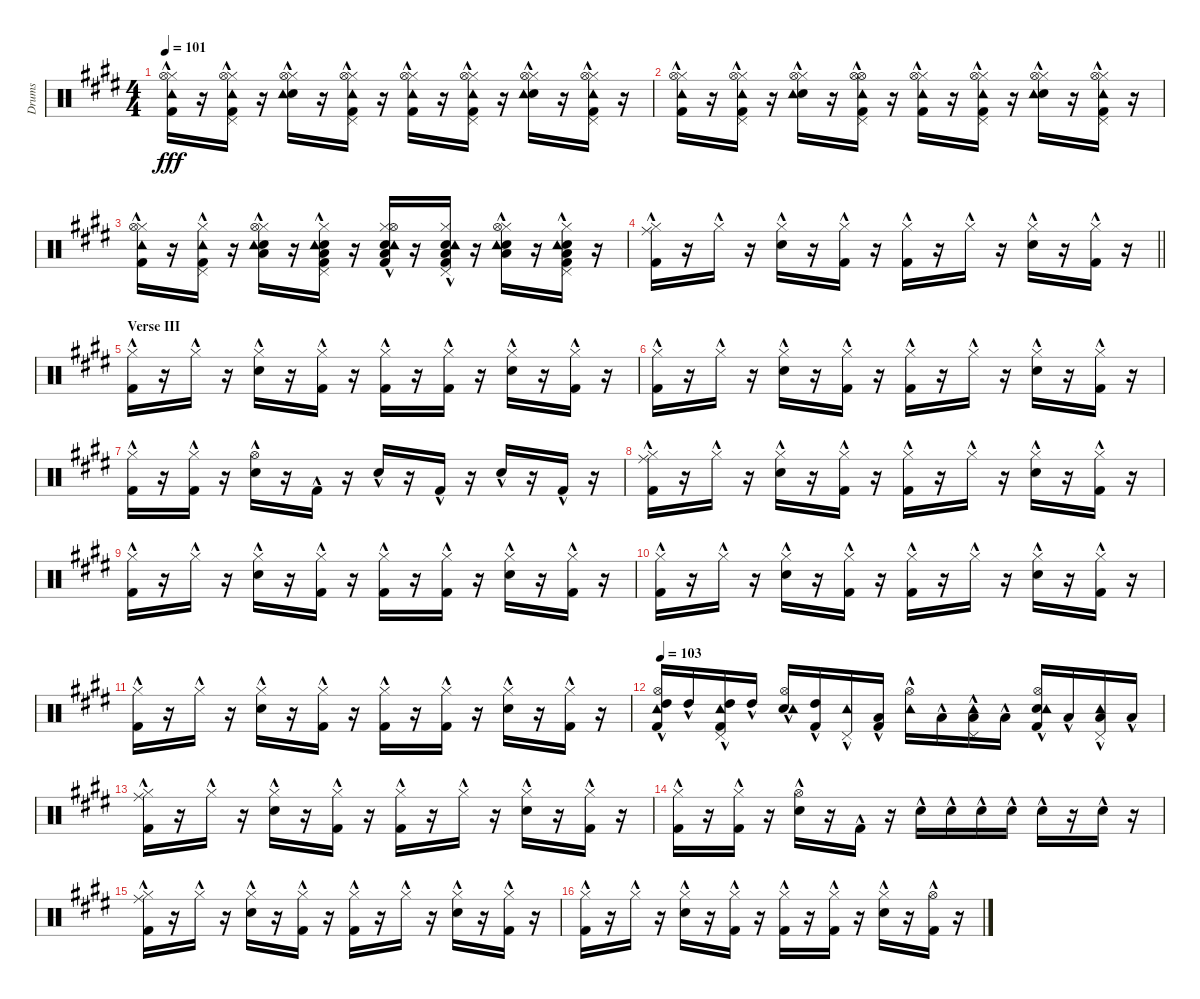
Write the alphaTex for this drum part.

\track ("Drums" "Drums") {instrument percussion}
\staff {score}
\articulation defaults
\ts (4 4)
\tempo 101
\clef neutral
\ks e
("Kick (hit) 2"{hac} "Hi-Hat (closed)"{hac} "Tambourine (hit)"{hac} "Hi-Hat (open)"{hac}).16{dy fff} r.16 ("Kick (hit) 2"{hac} "Hi-Hat (closed)"{hac} "Tambourine (hit)"{hac} "Hi-Hat (open)"{hac} "Pedal Hi-Hat (hit)"{hac}).16 r.16 ("Snare (hit) 2"{hac} "Hi-Hat (closed)"{hac} "Tambourine (hit)"{hac} "Hi-Hat (open)"{hac}).16 r.16 ("Kick (hit) 2"{hac} "Hi-Hat (closed)"{hac} "Tambourine (hit)"{hac} "Hi-Hat (open)"{hac} "Pedal Hi-Hat (hit)"{hac}).16 r.16 ("Kick (hit) 2"{hac} "Hi-Hat (closed)"{hac} "Tambourine (hit)"{hac} "Hi-Hat (open)"{hac}).16 r.16 ("Kick (hit) 2"{hac} "Hi-Hat (closed)"{hac} "Tambourine (hit)"{hac} "Hi-Hat (open)"{hac} "Pedal Hi-Hat (hit)"{hac}).16 r.16 ("Snare (hit) 2"{hac} "Hi-Hat (closed)"{hac} "Tambourine (hit)"{hac} "Hi-Hat (open)"{hac}).16 r.16 ("Kick (hit) 2"{hac} "Hi-Hat (closed)"{hac} "Tambourine (hit)"{hac} "Hi-Hat (open)"{hac} "Pedal Hi-Hat (hit)"{hac}).16 r.16 |
("Kick (hit) 2"{hac} "Hi-Hat (closed)"{hac} "Tambourine (hit)"{hac} "Hi-Hat (open)"{hac}).16 r.16 ("Kick (hit) 2"{hac} "Hi-Hat (closed)"{hac} "Tambourine (hit)"{hac} "Hi-Hat (open)"{hac} "Pedal Hi-Hat (hit)"{hac}).16 r.16 ("Snare (hit) 2"{hac} "Hi-Hat (closed)"{hac} "Tambourine (hit)"{hac} "Hi-Hat (open)"{hac}).16 r.16 ("Kick (hit) 2"{hac} "Hi-Hat (open)"{hac} "Tambourine (hit)"{hac} "Hi-Hat (open)"{hac} "Pedal Hi-Hat (hit)"{hac}).16 r.16 ("Kick (hit) 2"{hac} "Hi-Hat (closed)"{hac} "Tambourine (hit)"{hac} "Hi-Hat (open)"{hac}).16 r.16 ("Kick (hit) 2"{hac} "Hi-Hat (closed)"{hac} "Tambourine (hit)"{hac} "Hi-Hat (open)"{hac} "Pedal Hi-Hat (hit)"{hac}).16 r.16 ("Snare (hit) 2"{hac} "Hi-Hat (closed)"{hac} "Tambourine (hit)"{hac} "Hi-Hat (open)"{hac}).16 r.16 ("Kick (hit) 2"{hac} "Hi-Hat (closed)"{hac} "Tambourine (hit)"{hac} "Hi-Hat (open)"{hac} "Pedal Hi-Hat (hit)"{hac}).16 r.16 |
("Kick (hit) 2"{hac} "Hi-Hat (closed)"{hac} "Tambourine (hit)"{hac} "Hi-Hat (open)"{hac}).16 r.16 ("Kick (hit) 2"{hac} "Hi-Hat (closed)"{hac} "Tambourine (hit)"{hac} "Pedal Hi-Hat (hit)"{hac}).16 r.16 ("Snare (hit) 2"{hac} "Hi-Hat (closed)"{hac} "Low Floor Tom (hit)"{hac} "Tambourine (hit)"{hac} "Hi-Hat (open)"{hac}).16 r.16 ("Kick (hit) 2"{hac} "Snare (hit) 2"{hac} "Hi-Hat (closed)"{hac} "Low Floor Tom (hit)"{hac} "Tambourine (hit)"{hac} "Pedal Hi-Hat (hit)"{hac}).16 r.16 ("Kick (hit) 2"{hac} "Snare (hit) 2"{hac} "Hi-Hat (closed)"{hac} "Low Floor Tom (hit)"{hac} "Tambourine (hit)"{hac} "Hi-Hat (open)"{hac}).16 r.16 ("Kick (hit) 2"{hac} "Snare (hit) 2"{hac} "Hi-Hat (closed)"{hac} "Low Floor Tom (hit)"{hac} "Tambourine (hit)"{hac} "Pedal Hi-Hat (hit)"{hac}).16 r.16 ("Snare (hit) 2"{hac} "Hi-Hat (closed)"{hac} "Low Floor Tom (hit)"{hac} "Tambourine (hit)"{hac} "Hi-Hat (open)"{hac}).16 r.16 ("Kick (hit) 2"{hac} "Snare (hit) 2"{hac} "Hi-Hat (closed)"{hac} "Low Floor Tom (hit)"{hac} "Tambourine (hit)"{hac} "Pedal Hi-Hat (hit)"{hac}).16 r.16 |
\barLineRight lightlight
("Kick (hit) 2"{hac} "Hi-Hat (closed)"{hac} "Ride (middle)"{hac}).16 r.16 "Hi-Hat (closed)"{hac}.16 r.16 ("Snare (hit) 2"{hac} "Hi-Hat (closed)"{hac}).16 r.16 ("Kick (hit) 2"{hac} "Hi-Hat (closed)"{hac}).16 r.16 ("Kick (hit) 2"{hac} "Hi-Hat (closed)"{hac}).16 r.16 "Hi-Hat (closed)"{hac}.16 r.16 ("Snare (hit) 2"{hac} "Hi-Hat (closed)"{hac}).16 r.16 ("Kick (hit) 2"{hac} "Hi-Hat (closed)"{hac}).16 r.16 |
\section ("" "Verse III")
("Kick (hit) 2"{hac} "Hi-Hat (closed)"{hac}).16 r.16 "Hi-Hat (closed)"{hac}.16 r.16 ("Snare (hit) 2"{hac} "Hi-Hat (closed)"{hac}).16 r.16 ("Kick (hit) 2"{hac} "Hi-Hat (closed)"{hac}).16 r.16 ("Kick (hit) 2"{hac} "Hi-Hat (closed)"{hac}).16 r.16 ("Kick (hit) 2"{hac} "Hi-Hat (closed)"{hac}).16 r.16 ("Snare (hit) 2"{hac} "Hi-Hat (closed)"{hac}).16 r.16 ("Kick (hit) 2"{hac} "Hi-Hat (closed)"{hac}).16 r.16 |
("Kick (hit) 2"{hac} "Hi-Hat (closed)"{hac}).16 r.16 "Hi-Hat (closed)"{hac}.16 r.16 ("Snare (hit) 2"{hac} "Hi-Hat (closed)"{hac}).16 r.16 ("Kick (hit) 2"{hac} "Hi-Hat (closed)"{hac}).16 r.16 ("Kick (hit) 2"{hac} "Hi-Hat (closed)"{hac}).16 r.16 "Hi-Hat (closed)"{hac}.16 r.16 ("Snare (hit) 2"{hac} "Hi-Hat (closed)"{hac}).16 r.16 ("Kick (hit) 2"{hac} "Hi-Hat (closed)"{hac}).16 r.16 |
("Kick (hit) 2"{hac} "Hi-Hat (closed)"{hac}).16 r.16 ("Kick (hit) 2"{hac} "Hi-Hat (closed)"{hac}).16 r.16 ("Snare (hit) 2"{hac} "Hi-Hat (open)"{hac}).16 r.16 "Kick (hit) 2"{hac}.16 r.16 "Snare (hit) 2"{hac}.16 r.16 "Kick (hit) 2"{hac}.16 r.16 "Snare (hit) 2"{hac}.16 r.16 "Kick (hit) 2"{hac}.16 r.16 |
("Kick (hit) 2"{hac} "Hi-Hat (closed)"{hac} "Ride (middle)"{hac}).16 r.16 "Hi-Hat (closed)"{hac}.16 r.16 ("Snare (hit) 2"{hac} "Hi-Hat (closed)"{hac}).16 r.16 ("Kick (hit) 2"{hac} "Hi-Hat (closed)"{hac}).16 r.16 ("Kick (hit) 2"{hac} "Hi-Hat (closed)"{hac}).16 r.16 "Hi-Hat (closed)"{hac}.16 r.16 ("Snare (hit) 2"{hac} "Hi-Hat (closed)"{hac}).16 r.16 ("Kick (hit) 2"{hac} "Hi-Hat (closed)"{hac}).16 r.16 |
("Kick (hit) 2"{hac} "Hi-Hat (closed)"{hac}).16 r.16 "Hi-Hat (closed)"{hac}.16 r.16 ("Snare (hit) 2"{hac} "Hi-Hat (closed)"{hac}).16 r.16 ("Kick (hit) 2"{hac} "Hi-Hat (closed)"{hac}).16 r.16 ("Kick (hit) 2"{hac} "Hi-Hat (closed)"{hac}).16 r.16 ("Kick (hit) 2"{hac} "Hi-Hat (closed)"{hac}).16 r.16 ("Snare (hit) 2"{hac} "Hi-Hat (closed)"{hac}).16 r.16 ("Kick (hit) 2"{hac} "Hi-Hat (closed)"{hac}).16 r.16 |
("Kick (hit) 2"{hac} "Hi-Hat (closed)"{hac}).16 r.16 "Hi-Hat (closed)"{hac}.16 r.16 ("Snare (hit) 2"{hac} "Hi-Hat (closed)"{hac}).16 r.16 ("Kick (hit) 2"{hac} "Hi-Hat (closed)"{hac}).16 r.16 ("Kick (hit) 2"{hac} "Hi-Hat (closed)"{hac}).16 r.16 "Hi-Hat (closed)"{hac}.16 r.16 ("Snare (hit) 2"{hac} "Hi-Hat (closed)"{hac}).16 r.16 ("Kick (hit) 2"{hac} "Hi-Hat (closed)"{hac}).16 r.16 |
("Kick (hit) 2"{hac} "Hi-Hat (closed)"{hac}).16 r.16 "Hi-Hat (closed)"{hac}.16 r.16 ("Snare (hit) 2"{hac} "Hi-Hat (closed)"{hac}).16 r.16 ("Kick (hit) 2"{hac} "Hi-Hat (closed)"{hac}).16 r.16 ("Kick (hit) 2"{hac} "Hi-Hat (closed)"{hac}).16 r.16 ("Kick (hit) 2"{hac} "Hi-Hat (closed)"{hac}).16 r.16 ("Snare (hit) 2"{hac} "Hi-Hat (closed)"{hac}).16 r.16 ("Kick (hit) 2"{hac} "Hi-Hat (closed)"{hac}).16 r.16 |
\tempo 103
("Kick (hit) 2"{hac} "High Tom (hit)"{hac} "Tambourine (hit)"{hac} "Hi-Hat (open)"{hac}).16 "High Tom (hit)"{hac}.16 ("Kick (hit) 2"{hac} "High Tom (hit)"{hac} "Tambourine (hit)"{hac} "Pedal Hi-Hat (hit)"{hac}).16 "High Tom (hit)"{hac}.16 ("Snare (hit) 2"{hac} "Tambourine (hit)"{hac} "Hi-Hat (open)"{hac}).16 ("Kick (hit) 2"{hac} "High Tom (hit)"{hac}).16 ("Tambourine (hit)"{hac} "Pedal Hi-Hat (hit)"{hac}).16 ("Kick (hit) 2"{hac} "Low Tom (hit)"{hac}).16 ("Tambourine (hit)"{hac} "Hi-Hat (open)"{hac}).16 "Low Tom (hit)"{hac}.16 ("Low Tom (hit)"{hac} "Tambourine (hit)"{hac} "Pedal Hi-Hat (hit)"{hac}).16 "Low Tom (hit)"{hac}.16 ("Kick (hit) 2"{hac} "Snare (hit) 2"{hac} "Tambourine (hit)"{hac} "Hi-Hat (open)"{hac}).16 "Low Floor Tom (hit)"{hac}.16 ("Low Floor Tom (hit)"{hac} "Tambourine (hit)"{hac} "Pedal Hi-Hat (hit)"{hac}).16 "Low Floor Tom (hit)"{hac}.16 |
("Kick (hit) 2"{hac} "Hi-Hat (closed)"{hac} "Ride (middle)"{hac}).16 r.16 "Hi-Hat (closed)"{hac}.16 r.16 ("Snare (hit) 2"{hac} "Hi-Hat (closed)"{hac}).16 r.16 ("Kick (hit) 2"{hac} "Hi-Hat (closed)"{hac}).16 r.16 ("Kick (hit) 2"{hac} "Hi-Hat (closed)"{hac}).16 r.16 "Hi-Hat (closed)"{hac}.16 r.16 ("Snare (hit) 2"{hac} "Hi-Hat (closed)"{hac}).16 r.16 ("Kick (hit) 2"{hac} "Hi-Hat (closed)"{hac}).16 r.16 |
("Kick (hit) 2"{hac} "Hi-Hat (closed)"{hac}).16 r.16 ("Kick (hit) 2"{hac} "Hi-Hat (closed)"{hac}).16 r.16 ("Snare (hit) 2"{hac} "Hi-Hat (open)"{hac}).16 r.16 "Kick (hit) 2"{hac}.16 r.16 "Snare (hit) 2"{hac}.16 "Snare (hit) 2"{hac}.16 "Snare (hit) 2"{hac}.16 "Snare (hit) 2"{hac}.16 "Snare (hit) 2"{hac}.16 r.16 "Snare (hit) 2"{hac}.16 r.16 |
("Kick (hit) 2"{hac} "Hi-Hat (closed)"{hac} "Ride (middle)"{hac}).16 r.16 "Hi-Hat (closed)"{hac}.16 r.16 ("Snare (hit) 2"{hac} "Hi-Hat (closed)"{hac}).16 r.16 ("Kick (hit) 2"{hac} "Hi-Hat (closed)"{hac}).16 r.16 ("Kick (hit) 2"{hac} "Hi-Hat (closed)"{hac}).16 r.16 "Hi-Hat (closed)"{hac}.16 r.16 ("Snare (hit) 2"{hac} "Hi-Hat (closed)"{hac}).16 r.16 ("Kick (hit) 2"{hac} "Hi-Hat (closed)"{hac}).16 r.16 |
("Kick (hit) 2"{hac} "Hi-Hat (closed)"{hac}).16 r.16 "Hi-Hat (closed)"{hac}.16 r.16 ("Snare (hit) 2"{hac} "Hi-Hat (closed)"{hac}).16 r.16 ("Kick (hit) 2"{hac} "Hi-Hat (closed)"{hac}).16 r.16 ("Kick (hit) 2"{hac} "Hi-Hat (closed)"{hac}).16 r.16 ("Kick (hit) 2"{hac} "Hi-Hat (closed)"{hac}).16 r.16 ("Snare (hit) 2"{hac} "Hi-Hat (closed)"{hac}).16 r.16 ("Kick (hit) 2"{hac} "Hi-Hat (open)"{hac}).16 r.16
